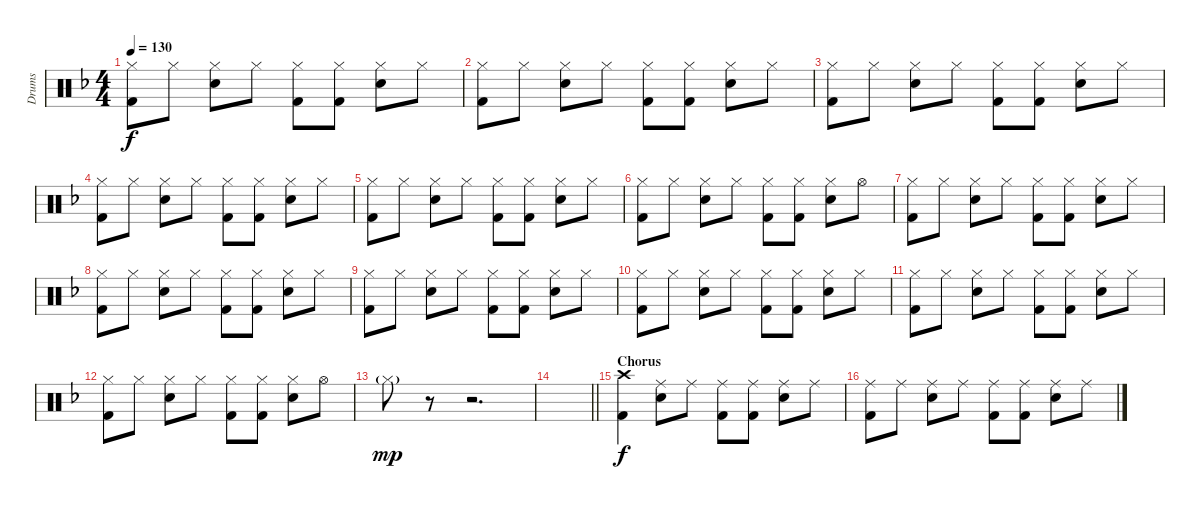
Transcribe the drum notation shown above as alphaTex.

\track ("Drums" "Drums") {instrument percussion}
\staff {score}
\articulation defaults
\ts (4 4)
\tempo 130
\clef neutral
\ks f
("Hi-Hat (closed)" "Kick (hit) 2").8{dy f} "Hi-Hat (closed)".8 ("Hi-Hat (closed)" "Snare (hit) 2").8 "Hi-Hat (closed)".8 ("Hi-Hat (closed)" "Kick (hit) 2").8 ("Hi-Hat (closed)" "Kick (hit) 2").8 ("Hi-Hat (closed)" "Snare (hit) 2").8 "Hi-Hat (closed)".8 |
("Hi-Hat (closed)" "Kick (hit) 2").8 "Hi-Hat (closed)".8 ("Hi-Hat (closed)" "Snare (hit) 2").8 "Hi-Hat (closed)".8 ("Hi-Hat (closed)" "Kick (hit) 2").8 ("Hi-Hat (closed)" "Kick (hit) 2").8 ("Hi-Hat (closed)" "Snare (hit) 2").8 "Hi-Hat (closed)".8 |
("Hi-Hat (closed)" "Kick (hit) 2").8 "Hi-Hat (closed)".8 ("Hi-Hat (closed)" "Snare (hit) 2").8 "Hi-Hat (closed)".8 ("Hi-Hat (closed)" "Kick (hit) 2").8 ("Hi-Hat (closed)" "Kick (hit) 2").8 ("Hi-Hat (closed)" "Snare (hit) 2").8 "Hi-Hat (closed)".8 |
("Hi-Hat (closed)" "Kick (hit) 2").8 "Hi-Hat (closed)".8 ("Hi-Hat (closed)" "Snare (hit) 2").8 "Hi-Hat (closed)".8 ("Hi-Hat (closed)" "Kick (hit) 2").8 ("Hi-Hat (closed)" "Kick (hit) 2").8 ("Hi-Hat (closed)" "Snare (hit) 2").8 "Hi-Hat (closed)".8 |
("Hi-Hat (closed)" "Kick (hit) 2").8 "Hi-Hat (closed)".8 ("Hi-Hat (closed)" "Snare (hit) 2").8 "Hi-Hat (closed)".8 ("Hi-Hat (closed)" "Kick (hit) 2").8 ("Hi-Hat (closed)" "Kick (hit) 2").8 ("Hi-Hat (closed)" "Snare (hit) 2").8 "Hi-Hat (closed)".8 |
("Hi-Hat (closed)" "Kick (hit) 2").8 "Hi-Hat (closed)".8 ("Hi-Hat (closed)" "Snare (hit) 2").8 "Hi-Hat (closed)".8 ("Hi-Hat (closed)" "Kick (hit) 2").8 ("Hi-Hat (closed)" "Kick (hit) 2").8 ("Hi-Hat (closed)" "Snare (hit) 2").8 "Hi-Hat (open)".8 |
("Hi-Hat (closed)" "Kick (hit) 2").8 "Hi-Hat (closed)".8 ("Hi-Hat (closed)" "Snare (hit) 2").8 "Hi-Hat (closed)".8 ("Hi-Hat (closed)" "Kick (hit) 2").8 ("Hi-Hat (closed)" "Kick (hit) 2").8 ("Hi-Hat (closed)" "Snare (hit) 2").8 "Hi-Hat (closed)".8 |
("Hi-Hat (closed)" "Kick (hit) 2").8 "Hi-Hat (closed)".8 ("Hi-Hat (closed)" "Snare (hit) 2").8 "Hi-Hat (closed)".8 ("Hi-Hat (closed)" "Kick (hit) 2").8 ("Hi-Hat (closed)" "Kick (hit) 2").8 ("Hi-Hat (closed)" "Snare (hit) 2").8 "Hi-Hat (closed)".8 |
("Hi-Hat (closed)" "Kick (hit) 2").8 "Hi-Hat (closed)".8 ("Hi-Hat (closed)" "Snare (hit) 2").8 "Hi-Hat (closed)".8 ("Hi-Hat (closed)" "Kick (hit) 2").8 ("Hi-Hat (closed)" "Kick (hit) 2").8 ("Hi-Hat (closed)" "Snare (hit) 2").8 "Hi-Hat (closed)".8 |
("Hi-Hat (closed)" "Kick (hit) 2").8 "Hi-Hat (closed)".8 ("Hi-Hat (closed)" "Snare (hit) 2").8 "Hi-Hat (closed)".8 ("Hi-Hat (closed)" "Kick (hit) 2").8 ("Hi-Hat (closed)" "Kick (hit) 2").8 ("Hi-Hat (closed)" "Snare (hit) 2").8 "Hi-Hat (closed)".8 |
("Hi-Hat (closed)" "Kick (hit) 2").8 "Hi-Hat (closed)".8 ("Hi-Hat (closed)" "Snare (hit) 2").8 "Hi-Hat (closed)".8 ("Hi-Hat (closed)" "Kick (hit) 2").8 ("Hi-Hat (closed)" "Kick (hit) 2").8 ("Hi-Hat (closed)" "Snare (hit) 2").8 "Hi-Hat (closed)".8 |
("Hi-Hat (closed)" "Kick (hit) 2").8 "Hi-Hat (closed)".8 ("Hi-Hat (closed)" "Snare (hit) 2").8 "Hi-Hat (closed)".8 ("Hi-Hat (closed)" "Kick (hit) 2").8 ("Hi-Hat (closed)" "Kick (hit) 2").8 ("Hi-Hat (closed)" "Snare (hit) 2").8 "Hi-Hat (open)".8 |
"Hi-Hat (closed)"{g}.8{dy mp} r.8 r.2{d} |
\barLineRight lightlight
|
\section ("" "Chorus")
("Crash high (hit)" "Kick (hit) 2").4{dy f} ("Ride (middle)" "Snare (hit) 2").8 "Ride (middle)".8 ("Ride (middle)" "Kick (hit) 2").8 ("Ride (middle)" "Kick (hit) 2").8 ("Ride (middle)" "Snare (hit) 2").8 "Ride (middle)".8 |
("Ride (middle)" "Kick (hit) 2").8 "Ride (middle)".8 ("Ride (middle)" "Snare (hit) 2").8 "Ride (middle)".8 ("Ride (middle)" "Kick (hit) 2").8 ("Ride (middle)" "Kick (hit) 2").8 ("Ride (middle)" "Snare (hit) 2").8 "Ride (middle)".8
